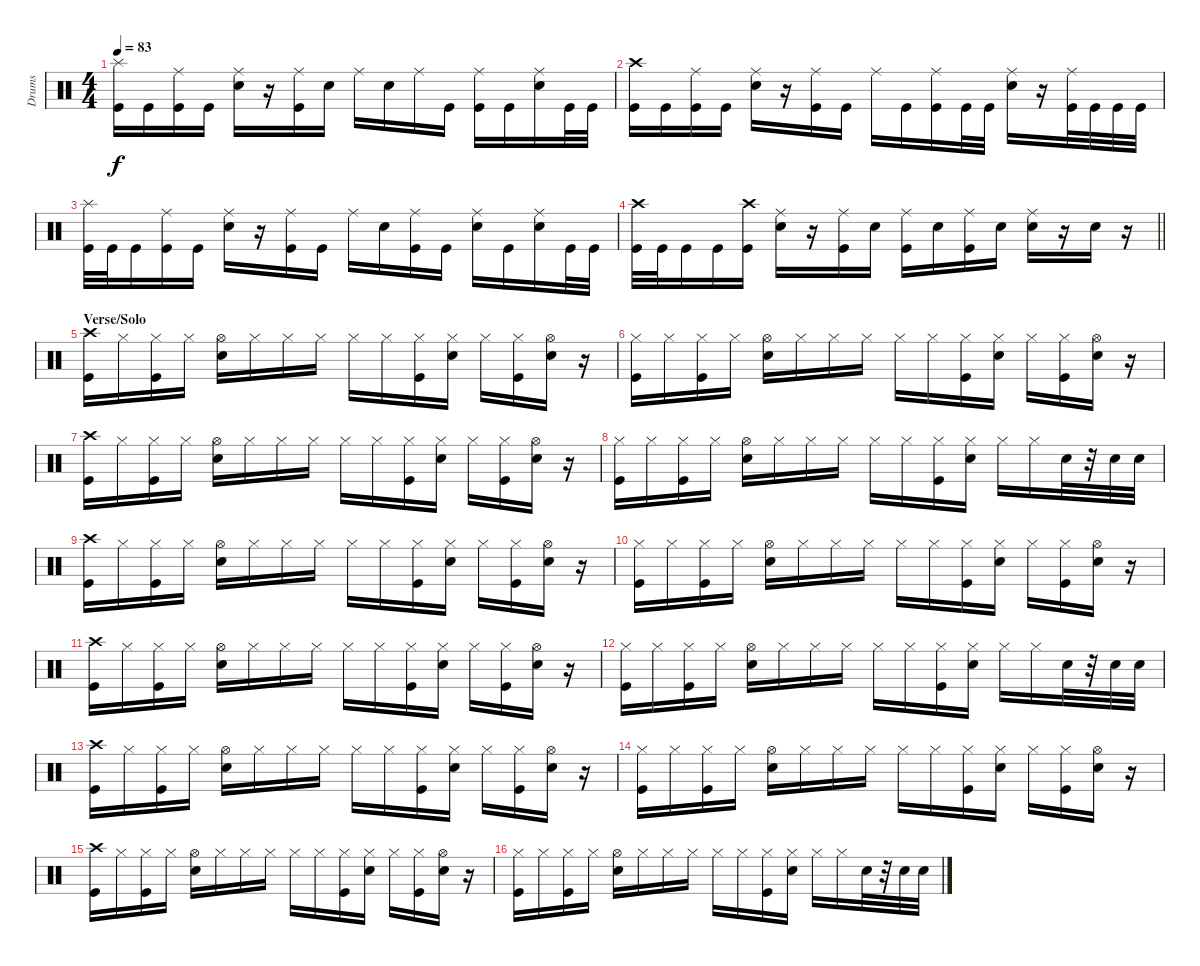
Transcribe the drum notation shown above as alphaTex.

\track ("Drums" "Drums") {instrument percussion}
\staff {score}
\articulation defaults
\ts (4 4)
\tempo 83
\clef neutral
\ks c
("Splash (hit)" "Kick (hit)").16{dy f} "Kick (hit)".16 ("Ride (middle)" "Kick (hit)").16 "Kick (hit)".16 ("Ride (middle)" "Electric Snare (hit)").16 r.16 ("Ride (middle)" "Kick (hit)").16 "Electric Snare (hit)".16 "Ride (middle)".16 "Electric Snare (hit)".16 "Ride (middle)".16 "Kick (hit)".16 ("Ride (middle)" "Kick (hit)").16 "Kick (hit)".16 ("Ride (middle)" "Electric Snare (hit)").16 "Kick (hit)".32 "Kick (hit)".32 |
("Crash high (hit)" "Kick (hit)").16 "Kick (hit)".16 ("Ride (middle)" "Kick (hit)").16 "Kick (hit)".16 ("Ride (middle)" "Electric Snare (hit)").16 r.16 ("Ride (middle)" "Kick (hit)").16 "Kick (hit)".16 "Ride (middle)".16 "Kick (hit)".16 ("Ride (middle)" "Kick (hit)").16 "Kick (hit)".32 "Kick (hit)".32 ("Ride (middle)" "Electric Snare (hit)").16 r.16 ("Ride (middle)" "Kick (hit)").32 "Kick (hit)".32 "Kick (hit)".32 "Kick (hit)".32 |
("Splash (hit)" "Kick (hit)").32 "Kick (hit)".32 "Kick (hit)".16 ("Ride (middle)" "Kick (hit)").16 "Kick (hit)".16 ("Ride (middle)" "Electric Snare (hit)").16 r.16 ("Ride (middle)" "Kick (hit)").16 "Kick (hit)".16 "Ride (middle)".16 "Electric Snare (hit)".16 ("Ride (middle)" "Kick (hit)").16 "Kick (hit)".16 ("Ride (middle)" "Electric Snare (hit)").16 "Kick (hit)".16 ("Ride (middle)" "Electric Snare (hit)").16 "Kick (hit)".32 "Kick (hit)".32 |
\barLineRight lightlight
("Crash high (hit)" "Kick (hit)").32 "Kick (hit)".32 "Kick (hit)".16 "Kick (hit)".16 ("Crash high (hit)" "Kick (hit)").16 ("Ride (middle)" "Electric Snare (hit)").16 r.16 ("Ride (middle)" "Kick (hit)").16 "Electric Snare (hit)".16 ("Ride (middle)" "Kick (hit)").16 "Electric Snare (hit)".16 ("Ride (middle)" "Kick (hit)").16 "Electric Snare (hit)".16 ("Ride (middle)" "Electric Snare (hit)").16 r.16 "Electric Snare (hit)".16 r.16 |
\section ("" "Verse/Solo")
("Crash high (hit)" "Kick (hit)").16 "Hi-Hat (closed)".16 ("Hi-Hat (closed)" "Kick (hit)").16 "Hi-Hat (closed)".16 ("Hi-Hat (open)" "Electric Snare (hit)").16 "Hi-Hat (closed)".16 "Hi-Hat (closed)".16 "Hi-Hat (closed)".16 "Hi-Hat (closed)".16 "Hi-Hat (closed)".16 ("Hi-Hat (closed)" "Kick (hit)").16 ("Hi-Hat (closed)" "Electric Snare (hit)").16 "Hi-Hat (closed)".16 ("Hi-Hat (closed)" "Kick (hit)").16 ("Hi-Hat (open)" "Electric Snare (hit)").16 r.16 |
("Hi-Hat (closed)" "Kick (hit)").16 "Hi-Hat (closed)".16 ("Hi-Hat (closed)" "Kick (hit)").16 "Hi-Hat (closed)".16 ("Hi-Hat (open)" "Electric Snare (hit)").16 "Hi-Hat (closed)".16 "Hi-Hat (closed)".16 "Hi-Hat (closed)".16 "Hi-Hat (closed)".16 "Hi-Hat (closed)".16 ("Hi-Hat (closed)" "Kick (hit)").16 ("Hi-Hat (closed)" "Electric Snare (hit)").16 "Hi-Hat (closed)".16 ("Hi-Hat (closed)" "Kick (hit)").16 ("Hi-Hat (open)" "Electric Snare (hit)").16 r.16 |
("Crash high (hit)" "Kick (hit)").16 "Hi-Hat (closed)".16 ("Hi-Hat (closed)" "Kick (hit)").16 "Hi-Hat (closed)".16 ("Hi-Hat (open)" "Electric Snare (hit)").16 "Hi-Hat (closed)".16 "Hi-Hat (closed)".16 "Hi-Hat (closed)".16 "Hi-Hat (closed)".16 "Hi-Hat (closed)".16 ("Hi-Hat (closed)" "Kick (hit)").16 ("Hi-Hat (closed)" "Electric Snare (hit)").16 "Hi-Hat (closed)".16 ("Hi-Hat (closed)" "Kick (hit)").16 ("Hi-Hat (open)" "Electric Snare (hit)").16 r.16 |
("Hi-Hat (closed)" "Kick (hit)").16 "Hi-Hat (closed)".16 ("Hi-Hat (closed)" "Kick (hit)").16 "Hi-Hat (closed)".16 ("Hi-Hat (open)" "Electric Snare (hit)").16 "Hi-Hat (closed)".16 "Hi-Hat (closed)".16 "Hi-Hat (closed)".16 "Hi-Hat (closed)".16 "Hi-Hat (closed)".16 ("Hi-Hat (closed)" "Kick (hit)").16 ("Hi-Hat (closed)" "Electric Snare (hit)").16 "Hi-Hat (closed)".16 "Hi-Hat (closed)".16 "Electric Snare (hit)".32 r.32 "Electric Snare (hit)".32 "Electric Snare (hit)".32 |
("Crash high (hit)" "Kick (hit)").16 "Hi-Hat (closed)".16 ("Hi-Hat (closed)" "Kick (hit)").16 "Hi-Hat (closed)".16 ("Hi-Hat (open)" "Electric Snare (hit)").16 "Hi-Hat (closed)".16 "Hi-Hat (closed)".16 "Hi-Hat (closed)".16 "Hi-Hat (closed)".16 "Hi-Hat (closed)".16 ("Hi-Hat (closed)" "Kick (hit)").16 ("Hi-Hat (closed)" "Electric Snare (hit)").16 "Hi-Hat (closed)".16 ("Hi-Hat (closed)" "Kick (hit)").16 ("Hi-Hat (open)" "Electric Snare (hit)").16 r.16 |
("Hi-Hat (closed)" "Kick (hit)").16 "Hi-Hat (closed)".16 ("Hi-Hat (closed)" "Kick (hit)").16 "Hi-Hat (closed)".16 ("Hi-Hat (open)" "Electric Snare (hit)").16 "Hi-Hat (closed)".16 "Hi-Hat (closed)".16 "Hi-Hat (closed)".16 "Hi-Hat (closed)".16 "Hi-Hat (closed)".16 ("Hi-Hat (closed)" "Kick (hit)").16 ("Hi-Hat (closed)" "Electric Snare (hit)").16 "Hi-Hat (closed)".16 ("Hi-Hat (closed)" "Kick (hit)").16 ("Hi-Hat (open)" "Electric Snare (hit)").16 r.16 |
("Crash high (hit)" "Kick (hit)").16 "Hi-Hat (closed)".16 ("Hi-Hat (closed)" "Kick (hit)").16 "Hi-Hat (closed)".16 ("Hi-Hat (open)" "Electric Snare (hit)").16 "Hi-Hat (closed)".16 "Hi-Hat (closed)".16 "Hi-Hat (closed)".16 "Hi-Hat (closed)".16 "Hi-Hat (closed)".16 ("Hi-Hat (closed)" "Kick (hit)").16 ("Hi-Hat (closed)" "Electric Snare (hit)").16 "Hi-Hat (closed)".16 ("Hi-Hat (closed)" "Kick (hit)").16 ("Hi-Hat (open)" "Electric Snare (hit)").16 r.16 |
("Hi-Hat (closed)" "Kick (hit)").16 "Hi-Hat (closed)".16 ("Hi-Hat (closed)" "Kick (hit)").16 "Hi-Hat (closed)".16 ("Hi-Hat (open)" "Electric Snare (hit)").16 "Hi-Hat (closed)".16 "Hi-Hat (closed)".16 "Hi-Hat (closed)".16 "Hi-Hat (closed)".16 "Hi-Hat (closed)".16 ("Hi-Hat (closed)" "Kick (hit)").16 ("Hi-Hat (closed)" "Electric Snare (hit)").16 "Hi-Hat (closed)".16 "Hi-Hat (closed)".16 "Electric Snare (hit)".32 r.32 "Electric Snare (hit)".32 "Electric Snare (hit)".32 |
("Crash high (hit)" "Kick (hit)").16 "Hi-Hat (closed)".16 ("Hi-Hat (closed)" "Kick (hit)").16 "Hi-Hat (closed)".16 ("Hi-Hat (open)" "Electric Snare (hit)").16 "Hi-Hat (closed)".16 "Hi-Hat (closed)".16 "Hi-Hat (closed)".16 "Hi-Hat (closed)".16 "Hi-Hat (closed)".16 ("Hi-Hat (closed)" "Kick (hit)").16 ("Hi-Hat (closed)" "Electric Snare (hit)").16 "Hi-Hat (closed)".16 ("Hi-Hat (closed)" "Kick (hit)").16 ("Hi-Hat (open)" "Electric Snare (hit)").16 r.16 |
("Hi-Hat (closed)" "Kick (hit)").16 "Hi-Hat (closed)".16 ("Hi-Hat (closed)" "Kick (hit)").16 "Hi-Hat (closed)".16 ("Hi-Hat (open)" "Electric Snare (hit)").16 "Hi-Hat (closed)".16 "Hi-Hat (closed)".16 "Hi-Hat (closed)".16 "Hi-Hat (closed)".16 "Hi-Hat (closed)".16 ("Hi-Hat (closed)" "Kick (hit)").16 ("Hi-Hat (closed)" "Electric Snare (hit)").16 "Hi-Hat (closed)".16 ("Hi-Hat (closed)" "Kick (hit)").16 ("Hi-Hat (open)" "Electric Snare (hit)").16 r.16 |
("Crash high (hit)" "Kick (hit)").16 "Hi-Hat (closed)".16 ("Hi-Hat (closed)" "Kick (hit)").16 "Hi-Hat (closed)".16 ("Hi-Hat (open)" "Electric Snare (hit)").16 "Hi-Hat (closed)".16 "Hi-Hat (closed)".16 "Hi-Hat (closed)".16 "Hi-Hat (closed)".16 "Hi-Hat (closed)".16 ("Hi-Hat (closed)" "Kick (hit)").16 ("Hi-Hat (closed)" "Electric Snare (hit)").16 "Hi-Hat (closed)".16 ("Hi-Hat (closed)" "Kick (hit)").16 ("Hi-Hat (open)" "Electric Snare (hit)").16 r.16 |
("Hi-Hat (closed)" "Kick (hit)").16 "Hi-Hat (closed)".16 ("Hi-Hat (closed)" "Kick (hit)").16 "Hi-Hat (closed)".16 ("Hi-Hat (open)" "Electric Snare (hit)").16 "Hi-Hat (closed)".16 "Hi-Hat (closed)".16 "Hi-Hat (closed)".16 "Hi-Hat (closed)".16 "Hi-Hat (closed)".16 ("Hi-Hat (closed)" "Kick (hit)").16 ("Hi-Hat (closed)" "Electric Snare (hit)").16 "Hi-Hat (closed)".16 "Hi-Hat (closed)".16 "Electric Snare (hit)".32 r.32 "Electric Snare (hit)".32 "Electric Snare (hit)".32
